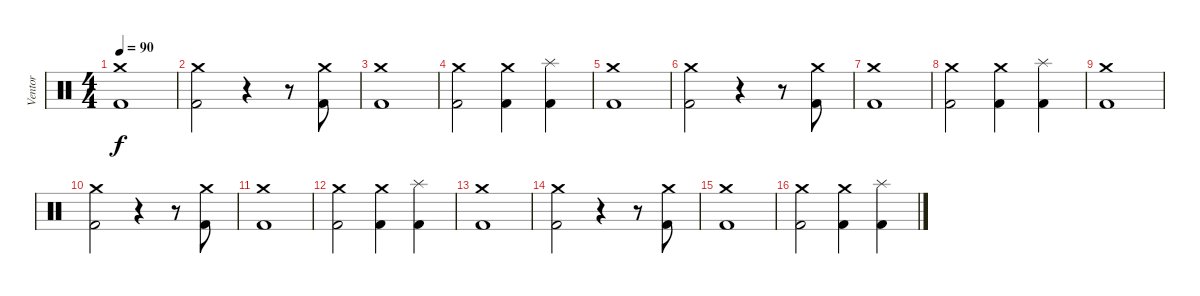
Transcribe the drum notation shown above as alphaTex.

\track ("Ventor" "Ventor") {instrument percussion}
\staff {score}
\articulation defaults
\ts (4 4)
\tempo 90
\clef neutral
\ks c
("Crash medium (hit)" "Kick (hit) 2").1{dy f} |
("Crash medium (hit)" "Kick (hit) 2").2 r.4 r.8 ("Crash medium (hit)" "Kick (hit) 2").8 |
("Crash medium (hit)" "Kick (hit) 2").1 |
("Crash medium (hit)" "Kick (hit) 2").2 ("Crash medium (hit)" "Kick (hit) 2").4 ("Splash (hit)" "Kick (hit) 2").4 |
("Crash medium (hit)" "Kick (hit) 2").1 |
("Crash medium (hit)" "Kick (hit) 2").2 r.4 r.8 ("Crash medium (hit)" "Kick (hit) 2").8 |
("Crash medium (hit)" "Kick (hit) 2").1 |
("Crash medium (hit)" "Kick (hit) 2").2 ("Crash medium (hit)" "Kick (hit) 2").4 ("Splash (hit)" "Kick (hit) 2").4 |
("Crash medium (hit)" "Kick (hit) 2").1 |
("Crash medium (hit)" "Kick (hit) 2").2 r.4 r.8 ("Crash medium (hit)" "Kick (hit) 2").8 |
("Crash medium (hit)" "Kick (hit) 2").1 |
("Crash medium (hit)" "Kick (hit) 2").2 ("Crash medium (hit)" "Kick (hit) 2").4 ("Splash (hit)" "Kick (hit) 2").4 |
("Crash medium (hit)" "Kick (hit) 2").1 |
("Crash medium (hit)" "Kick (hit) 2").2 r.4 r.8 ("Crash medium (hit)" "Kick (hit) 2").8 |
("Crash medium (hit)" "Kick (hit) 2").1 |
("Crash medium (hit)" "Kick (hit) 2").2 ("Crash medium (hit)" "Kick (hit) 2").4 ("Splash (hit)" "Kick (hit) 2").4
